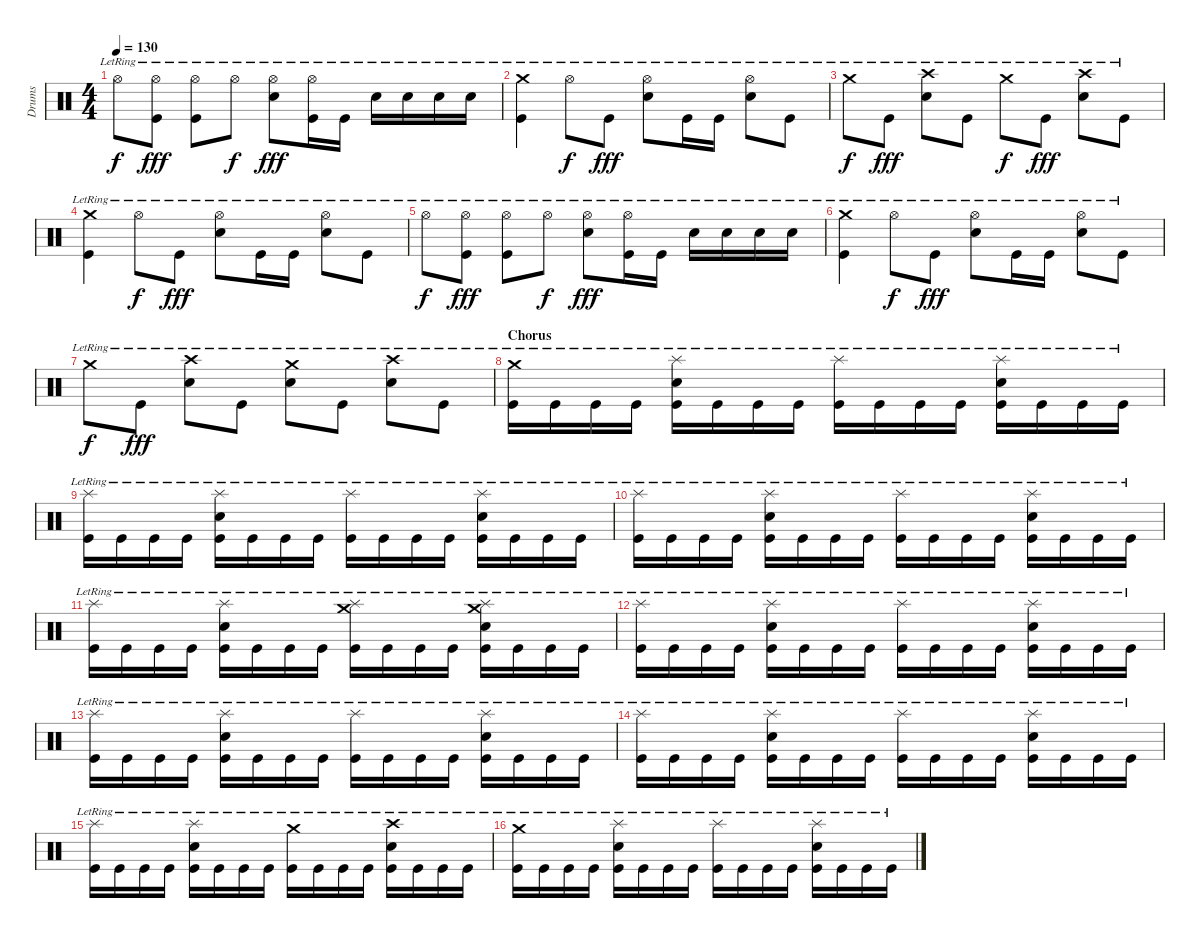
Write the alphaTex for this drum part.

\track ("Drums" "Drums") {instrument percussion}
\staff {score}
\articulation defaults
\ts (4 4)
\tempo 130
\clef neutral
\ks c "Hi-Hat (open)"{lr}.8{dy f}
("Kick (hit)"{lr} "Hi-Hat (open)"{lr}).8{dy fff} ("Kick (hit)"{lr} "Hi-Hat (open)"{lr}).8 "Hi-Hat (open)"{lr}.8{dy f} ("Snare (hit) 2"{lr} "Hi-Hat (open)"{lr}).8{dy fff} ("Kick (hit)"{lr} "Hi-Hat (open)"{lr}).16 "Kick (hit)"{lr}.16 "Snare (hit) 2"{lr}.16 "Snare (hit) 2"{lr}.16 "Snare (hit) 2"{lr}.16 "Snare (hit) 2"{lr}.16 |
("Kick (hit)"{lr} "Crash medium (hit)"{lr}).4 "Hi-Hat (open)"{lr}.8{dy f} "Kick (hit)"{lr}.8{dy fff} ("Snare (hit) 2"{lr} "Hi-Hat (open)"{lr}).8 "Kick (hit)"{lr}.16 "Kick (hit)"{lr}.16 ("Snare (hit) 2"{lr} "Hi-Hat (open)"{lr}).8 "Kick (hit)"{lr}.8 |
"Crash medium (hit)"{lr}.8{dy f} "Kick (hit)"{lr}.8{dy fff} ("Snare (hit) 2"{lr} "Crash high (hit)"{lr}).8 "Kick (hit)"{lr}.8 "Crash medium (hit)"{lr}.8{dy f} "Kick (hit)"{lr}.8{dy fff} ("Snare (hit) 2"{lr} "Crash high (hit)"{lr}).8 "Kick (hit)"{lr}.8 |
("Kick (hit)"{lr} "Crash medium (hit)"{lr}).4 "Hi-Hat (open)"{lr}.8{dy f} "Kick (hit)"{lr}.8{dy fff} ("Snare (hit) 2"{lr} "Hi-Hat (open)"{lr}).8 "Kick (hit)"{lr}.16 "Kick (hit)"{lr}.16 ("Snare (hit) 2"{lr} "Hi-Hat (open)"{lr}).8 "Kick (hit)"{lr}.8 |
"Hi-Hat (open)"{lr}.8{dy f} ("Kick (hit)"{lr} "Hi-Hat (open)"{lr}).8{dy fff} ("Kick (hit)"{lr} "Hi-Hat (open)"{lr}).8 "Hi-Hat (open)"{lr}.8{dy f} ("Snare (hit) 2"{lr} "Hi-Hat (open)"{lr}).8{dy fff} ("Kick (hit)"{lr} "Hi-Hat (open)"{lr}).16 "Kick (hit)"{lr}.16 "Snare (hit) 2"{lr}.16 "Snare (hit) 2"{lr}.16 "Snare (hit) 2"{lr}.16 "Snare (hit) 2"{lr}.16 |
("Kick (hit)"{lr} "Crash medium (hit)"{lr}).4 "Hi-Hat (open)"{lr}.8{dy f} "Kick (hit)"{lr}.8{dy fff} ("Snare (hit) 2"{lr} "Hi-Hat (open)"{lr}).8 "Kick (hit)"{lr}.16 "Kick (hit)"{lr}.16 ("Snare (hit) 2"{lr} "Hi-Hat (open)"{lr}).8 "Kick (hit)"{lr}.8 |
"Crash medium (hit)"{lr}.8{dy f} "Kick (hit)"{lr}.8{dy fff} ("Snare (hit) 2"{lr} "Crash high (hit)"{lr}).8 "Kick (hit)"{lr}.8 ("Snare (hit) 2"{lr} "Crash medium (hit)"{lr}).8 "Kick (hit)"{lr}.8 ("Snare (hit) 2"{lr} "Crash high (hit)"{lr}).8 "Kick (hit)"{lr}.8 |
\section ("" "Chorus")
("Kick (hit)"{lr} "Crash medium (hit)"{lr}).16 "Kick (hit)"{lr}.16 "Kick (hit)"{lr}.16 "Kick (hit)"{lr}.16 ("Kick (hit)"{lr} "Snare (hit) 2"{lr} "Splash (hit)"{lr}).16 "Kick (hit)"{lr}.16 "Kick (hit)"{lr}.16 "Kick (hit)"{lr}.16 ("Kick (hit)"{lr} "Splash (hit)"{lr}).16 "Kick (hit)"{lr}.16 "Kick (hit)"{lr}.16 "Kick (hit)"{lr}.16 ("Kick (hit)"{lr} "Snare (hit) 2"{lr} "Splash (hit)"{lr}).16 "Kick (hit)"{lr}.16 "Kick (hit)"{lr}.16 "Kick (hit)"{lr}.16 |
("Kick (hit)"{lr} "Splash (hit)"{lr}).16 "Kick (hit)"{lr}.16 "Kick (hit)"{lr}.16 "Kick (hit)"{lr}.16 ("Kick (hit)"{lr} "Snare (hit) 2"{lr} "Splash (hit)"{lr}).16 "Kick (hit)"{lr}.16 "Kick (hit)"{lr}.16 "Kick (hit)"{lr}.16 ("Kick (hit)"{lr} "Splash (hit)"{lr}).16 "Kick (hit)"{lr}.16 "Kick (hit)"{lr}.16 "Kick (hit)"{lr}.16 ("Kick (hit)"{lr} "Snare (hit) 2"{lr} "Splash (hit)"{lr}).16 "Kick (hit)"{lr}.16 "Kick (hit)"{lr}.16 "Kick (hit)"{lr}.16 |
("Kick (hit)"{lr} "Splash (hit)"{lr}).16 "Kick (hit)"{lr}.16 "Kick (hit)"{lr}.16 "Kick (hit)"{lr}.16 ("Kick (hit)"{lr} "Snare (hit) 2"{lr} "Splash (hit)"{lr}).16 "Kick (hit)"{lr}.16 "Kick (hit)"{lr}.16 "Kick (hit)"{lr}.16 ("Kick (hit)"{lr} "Splash (hit)"{lr}).16 "Kick (hit)"{lr}.16 "Kick (hit)"{lr}.16 "Kick (hit)"{lr}.16 ("Kick (hit)"{lr} "Snare (hit) 2"{lr} "Splash (hit)"{lr}).16 "Kick (hit)"{lr}.16 "Kick (hit)"{lr}.16 "Kick (hit)"{lr}.16 |
("Kick (hit)"{lr} "Splash (hit)"{lr}).16 "Kick (hit)"{lr}.16 "Kick (hit)"{lr}.16 "Kick (hit)"{lr}.16 ("Kick (hit)"{lr} "Snare (hit) 2"{lr} "Splash (hit)"{lr}).16 "Kick (hit)"{lr}.16 "Kick (hit)"{lr}.16 "Kick (hit)"{lr}.16 ("Kick (hit)"{lr} "Splash (hit)"{lr} "Crash medium (hit)"{lr}).16 "Kick (hit)"{lr}.16 "Kick (hit)"{lr}.16 "Kick (hit)"{lr}.16 ("Kick (hit)"{lr} "Snare (hit) 2"{lr} "Splash (hit)"{lr} "Crash medium (hit)"{lr}).16 "Kick (hit)"{lr}.16 "Kick (hit)"{lr}.16 "Kick (hit)"{lr}.16 |
("Kick (hit)"{lr} "Splash (hit)"{lr}).16 "Kick (hit)"{lr}.16 "Kick (hit)"{lr}.16 "Kick (hit)"{lr}.16 ("Kick (hit)"{lr} "Snare (hit) 2"{lr} "Splash (hit)"{lr}).16 "Kick (hit)"{lr}.16 "Kick (hit)"{lr}.16 "Kick (hit)"{lr}.16 ("Kick (hit)"{lr} "Splash (hit)"{lr}).16 "Kick (hit)"{lr}.16 "Kick (hit)"{lr}.16 "Kick (hit)"{lr}.16 ("Kick (hit)"{lr} "Snare (hit) 2"{lr} "Splash (hit)"{lr}).16 "Kick (hit)"{lr}.16 "Kick (hit)"{lr}.16 "Kick (hit)"{lr}.16 |
("Kick (hit)"{lr} "Splash (hit)"{lr}).16 "Kick (hit)"{lr}.16 "Kick (hit)"{lr}.16 "Kick (hit)"{lr}.16 ("Kick (hit)"{lr} "Snare (hit) 2"{lr} "Splash (hit)"{lr}).16 "Kick (hit)"{lr}.16 "Kick (hit)"{lr}.16 "Kick (hit)"{lr}.16 ("Kick (hit)"{lr} "Splash (hit)"{lr}).16 "Kick (hit)"{lr}.16 "Kick (hit)"{lr}.16 "Kick (hit)"{lr}.16 ("Kick (hit)"{lr} "Snare (hit) 2"{lr} "Splash (hit)"{lr}).16 "Kick (hit)"{lr}.16 "Kick (hit)"{lr}.16 "Kick (hit)"{lr}.16 |
("Kick (hit)"{lr} "Splash (hit)"{lr}).16 "Kick (hit)"{lr}.16 "Kick (hit)"{lr}.16 "Kick (hit)"{lr}.16 ("Kick (hit)"{lr} "Snare (hit) 2"{lr} "Splash (hit)"{lr}).16 "Kick (hit)"{lr}.16 "Kick (hit)"{lr}.16 "Kick (hit)"{lr}.16 ("Kick (hit)"{lr} "Splash (hit)"{lr}).16 "Kick (hit)"{lr}.16 "Kick (hit)"{lr}.16 "Kick (hit)"{lr}.16 ("Kick (hit)"{lr} "Snare (hit) 2"{lr} "Splash (hit)"{lr}).16 "Kick (hit)"{lr}.16 "Kick (hit)"{lr}.16 "Kick (hit)"{lr}.16 |
("Kick (hit)"{lr} "Splash (hit)"{lr}).16 "Kick (hit)"{lr}.16 "Kick (hit)"{lr}.16 "Kick (hit)"{lr}.16 ("Kick (hit)"{lr} "Snare (hit) 2"{lr} "Splash (hit)"{lr}).16 "Kick (hit)"{lr}.16 "Kick (hit)"{lr}.16 "Kick (hit)"{lr}.16 ("Kick (hit)"{lr} "Crash medium (hit)"{lr}).16 "Kick (hit)"{lr}.16 "Kick (hit)"{lr}.16 "Kick (hit)"{lr}.16 ("Kick (hit)"{lr} "Snare (hit) 2"{lr} "Crash high (hit)"{lr}).16 "Kick (hit)"{lr}.16 "Kick (hit)"{lr}.16 "Kick (hit)"{lr}.16 |
("Kick (hit)"{lr} "Crash medium (hit)"{lr}).16 "Kick (hit)"{lr}.16 "Kick (hit)"{lr}.16 "Kick (hit)"{lr}.16 ("Kick (hit)"{lr} "Snare (hit) 2"{lr} "Splash (hit)"{lr}).16 "Kick (hit)"{lr}.16 "Kick (hit)"{lr}.16 "Kick (hit)"{lr}.16 ("Kick (hit)"{lr} "Splash (hit)"{lr}).16 "Kick (hit)"{lr}.16 "Kick (hit)"{lr}.16 "Kick (hit)"{lr}.16 ("Kick (hit)"{lr} "Snare (hit) 2"{lr} "Splash (hit)"{lr}).16 "Kick (hit)"{lr}.16 "Kick (hit)"{lr}.16 "Kick (hit)"{lr}.16
